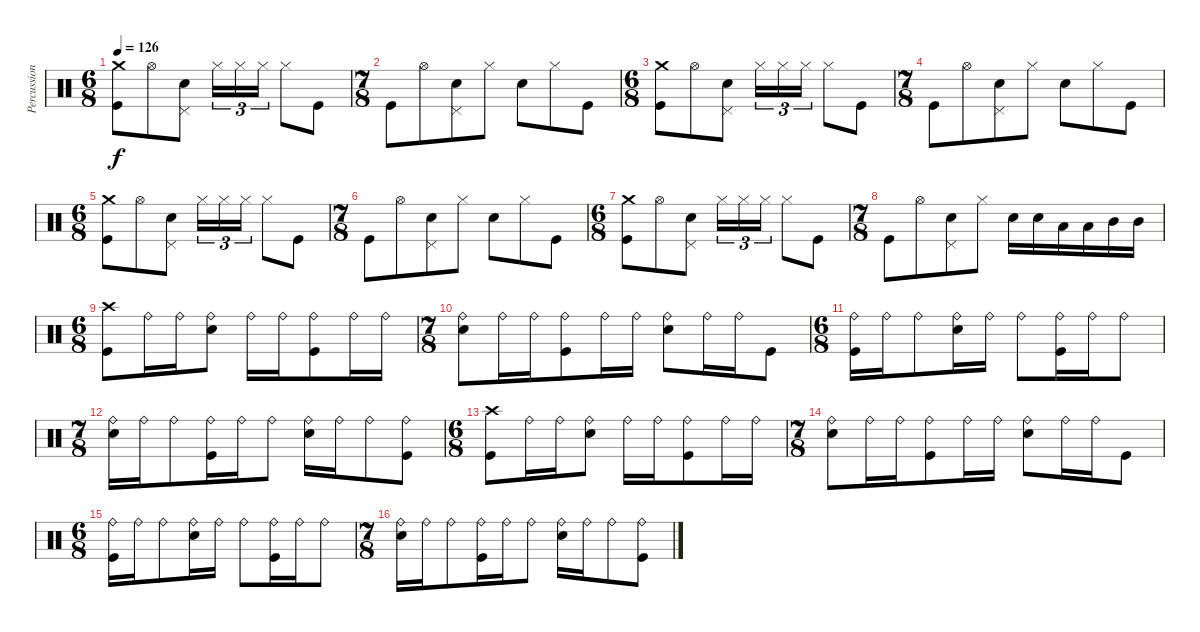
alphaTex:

\track ("Percussion" "Percussion") {instrument percussion}
\staff {score}
\articulation defaults
\ts (6 8)
\tempo 126
\clef neutral
\ks c
("Crash medium (hit)" "Kick (hit)").8{dy f} "Hi-Hat (open)".8 ("Snare (hit) 2" "Pedal Hi-Hat (hit)").8 "Hi-Hat (closed)".16{tu (3 2)} "Hi-Hat (closed)".16{tu (3 2)} "Hi-Hat (closed)".16{tu (3 2)} "Hi-Hat (closed)".8 "Kick (hit)".8 |
\ts (7 8)
"Kick (hit)".8 "Hi-Hat (open)".8 ("Snare (hit) 2" "Pedal Hi-Hat (hit)").8 "Hi-Hat (closed)".8 "Snare (hit) 2".8 "Hi-Hat (closed)".8 "Kick (hit)".8 |
\ts (6 8)
("Crash medium (hit)" "Kick (hit)").8 "Hi-Hat (open)".8 ("Snare (hit) 2" "Pedal Hi-Hat (hit)").8 "Hi-Hat (closed)".16{tu (3 2)} "Hi-Hat (closed)".16{tu (3 2)} "Hi-Hat (closed)".16{tu (3 2)} "Hi-Hat (closed)".8 "Kick (hit)".8 |
\ts (7 8)
"Kick (hit)".8 "Hi-Hat (open)".8 ("Snare (hit) 2" "Pedal Hi-Hat (hit)").8 "Hi-Hat (closed)".8 "Snare (hit) 2".8 "Hi-Hat (closed)".8 "Kick (hit)".8 |
\ts (6 8)
("Crash medium (hit)" "Kick (hit)").8 "Hi-Hat (open)".8 ("Snare (hit) 2" "Pedal Hi-Hat (hit)").8 "Hi-Hat (closed)".16{tu (3 2)} "Hi-Hat (closed)".16{tu (3 2)} "Hi-Hat (closed)".16{tu (3 2)} "Hi-Hat (closed)".8 "Kick (hit)".8 |
\ts (7 8)
"Kick (hit)".8 "Hi-Hat (open)".8 ("Snare (hit) 2" "Pedal Hi-Hat (hit)").8 "Hi-Hat (closed)".8 "Snare (hit) 2".8 "Hi-Hat (closed)".8 "Kick (hit)".8 |
\ts (6 8)
("Crash medium (hit)" "Kick (hit)").8 "Hi-Hat (open)".8 ("Snare (hit) 2" "Pedal Hi-Hat (hit)").8 "Hi-Hat (closed)".16{tu (3 2)} "Hi-Hat (closed)".16{tu (3 2)} "Hi-Hat (closed)".16{tu (3 2)} "Hi-Hat (closed)".8 "Kick (hit)".8 |
\ts (7 8)
"Kick (hit)".8 "Hi-Hat (open)".8 ("Snare (hit) 2" "Pedal Hi-Hat (hit)").8 "Hi-Hat (closed)".8 "Electric Snare (hit)".16 "Electric Snare (hit)".16 "Low Tom (hit)".16 "Low Tom (hit)".16 "Mid Tom (hit)".16 "Mid Tom (hit)".16 |
\ts (6 8)
("Crash high (hit)" "Kick (hit)").8 "Ride (bell)".16 "Ride (bell)".16 ("Ride (bell)" "Snare (hit) 2").8 "Ride (bell)".16 "Ride (bell)".16 ("Ride (bell)" "Kick (hit)").8 "Ride (bell)".16 "Ride (bell)".16 |
\ts (7 8)
("Ride (bell)" "Snare (hit) 2").8 "Ride (bell)".16 "Ride (bell)".16 ("Ride (bell)" "Kick (hit)").8 "Ride (bell)".16 "Ride (bell)".16 ("Ride (bell)" "Snare (hit) 2").8 "Ride (bell)".16 "Ride (bell)".16 "Kick (hit)".8 |
\ts (6 8)
("Ride (bell)" "Kick (hit)").16 "Ride (bell)".16 "Ride (bell)".8 ("Ride (bell)" "Snare (hit) 2").16 "Ride (bell)".16 "Ride (bell)".8 ("Ride (bell)" "Kick (hit)").16 "Ride (bell)".16 "Ride (bell)".8 |
\ts (7 8)
("Ride (bell)" "Snare (hit) 2").16 "Ride (bell)".16 "Ride (bell)".8 ("Ride (bell)" "Kick (hit)").16 "Ride (bell)".16 "Ride (bell)".8 ("Ride (bell)" "Snare (hit) 2").16 "Ride (bell)".16 "Ride (bell)".8 ("Ride (bell)" "Kick (hit)").8 |
\ts (6 8)
("Crash high (hit)" "Kick (hit)").8 "Ride (bell)".16 "Ride (bell)".16 ("Ride (bell)" "Snare (hit) 2").8 "Ride (bell)".16 "Ride (bell)".16 ("Ride (bell)" "Kick (hit)").8 "Ride (bell)".16 "Ride (bell)".16 |
\ts (7 8)
("Ride (bell)" "Snare (hit) 2").8 "Ride (bell)".16 "Ride (bell)".16 ("Ride (bell)" "Kick (hit)").8 "Ride (bell)".16 "Ride (bell)".16 ("Ride (bell)" "Snare (hit) 2").8 "Ride (bell)".16 "Ride (bell)".16 "Kick (hit)".8 |
\ts (6 8)
("Ride (bell)" "Kick (hit)").16 "Ride (bell)".16 "Ride (bell)".8 ("Ride (bell)" "Snare (hit) 2").16 "Ride (bell)".16 "Ride (bell)".8 ("Ride (bell)" "Kick (hit)").16 "Ride (bell)".16 "Ride (bell)".8 |
\ts (7 8)
("Ride (bell)" "Snare (hit) 2").16 "Ride (bell)".16 "Ride (bell)".8 ("Ride (bell)" "Kick (hit)").16 "Ride (bell)".16 "Ride (bell)".8 ("Ride (bell)" "Snare (hit) 2").16 "Ride (bell)".16 "Ride (bell)".8 ("Ride (bell)" "Kick (hit)").8
